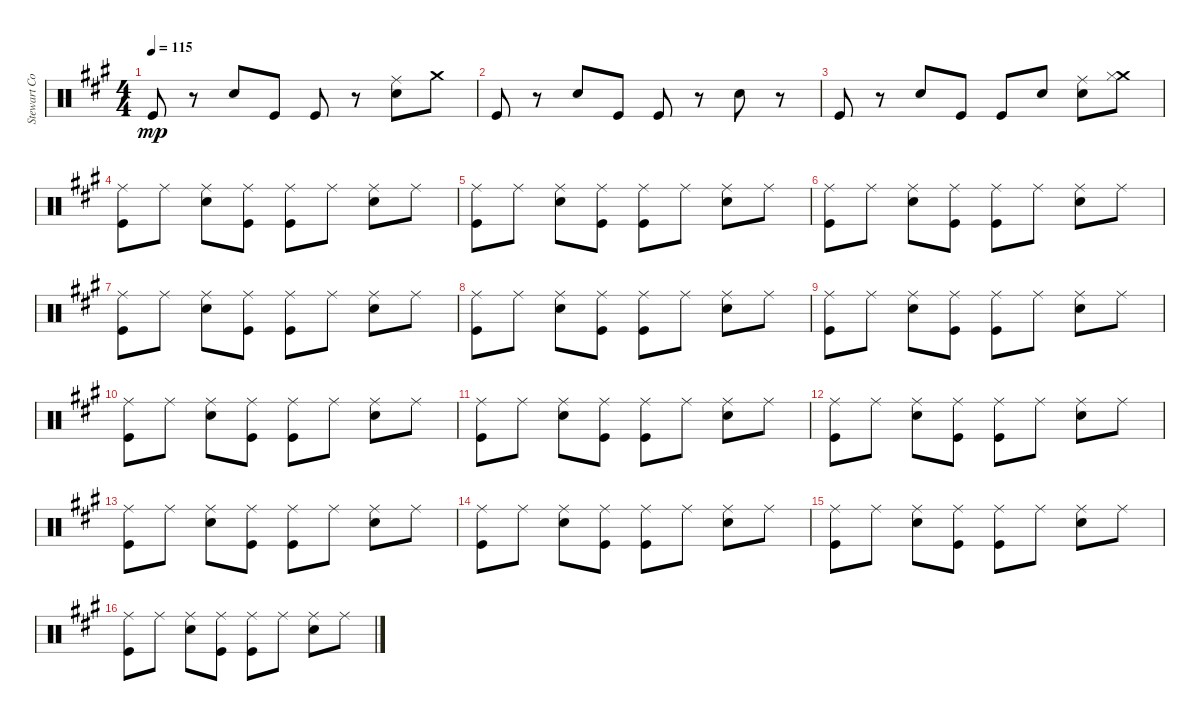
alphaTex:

\track ("Stewart Copeland" "Stewart Co") {instrument percussion}
\staff {score}
\articulation defaults
\ts (4 4)
\tempo 115
\clef neutral
\ks a "Kick (hit)".8{dy mp}
r.8 "Snare (hit) 2".8 "Kick (hit)".8 "Kick (hit)".8 r.8 ("Snare (hit) 2" "Ride (middle)").8 "Crash medium (hit)".8 |
"Kick (hit)".8 r.8 "Snare (hit) 2".8 "Kick (hit)".8 "Kick (hit)".8 r.8 "Snare (hit) 2".8 r.8 |
"Kick (hit)".8 r.8 "Snare (hit) 2".8 "Kick (hit)".8 "Kick (hit)".8 "Snare (hit) 2".8 ("Snare (hit) 2" "Ride (middle)").8 ("Crash medium (hit)" "Hi-Hat (closed)").8 |
("Kick (hit)" "Ride (middle)").8 "Ride (middle)".8 ("Snare (hit) 2" "Ride (middle)").8 ("Kick (hit)" "Ride (middle)").8 ("Kick (hit)" "Ride (middle)").8 "Ride (middle)".8 ("Snare (hit) 2" "Ride (middle)").8 "Ride (middle)".8 |
("Kick (hit)" "Ride (middle)").8 "Ride (middle)".8 ("Snare (hit) 2" "Ride (middle)").8 ("Kick (hit)" "Ride (middle)").8 ("Kick (hit)" "Ride (middle)").8 "Ride (middle)".8 ("Snare (hit) 2" "Ride (middle)").8 "Ride (middle)".8 |
("Kick (hit)" "Ride (middle)").8 "Ride (middle)".8 ("Snare (hit) 2" "Ride (middle)").8 ("Kick (hit)" "Ride (middle)").8 ("Kick (hit)" "Ride (middle)").8 "Ride (middle)".8 ("Snare (hit) 2" "Ride (middle)").8 "Ride (middle)".8 |
("Kick (hit)" "Ride (middle)").8 "Ride (middle)".8 ("Snare (hit) 2" "Ride (middle)").8 ("Kick (hit)" "Ride (middle)").8 ("Kick (hit)" "Ride (middle)").8 "Ride (middle)".8 ("Snare (hit) 2" "Ride (middle)").8 "Ride (middle)".8 |
("Kick (hit)" "Ride (middle)").8 "Ride (middle)".8 ("Snare (hit) 2" "Ride (middle)").8 ("Kick (hit)" "Ride (middle)").8 ("Kick (hit)" "Ride (middle)").8 "Ride (middle)".8 ("Snare (hit) 2" "Ride (middle)").8 "Ride (middle)".8 |
("Kick (hit)" "Ride (middle)").8 "Ride (middle)".8 ("Snare (hit) 2" "Ride (middle)").8 ("Kick (hit)" "Ride (middle)").8 ("Kick (hit)" "Ride (middle)").8 "Ride (middle)".8 ("Snare (hit) 2" "Ride (middle)").8 "Ride (middle)".8 |
("Kick (hit)" "Ride (middle)").8 "Ride (middle)".8 ("Snare (hit) 2" "Ride (middle)").8 ("Kick (hit)" "Ride (middle)").8 ("Kick (hit)" "Ride (middle)").8 "Ride (middle)".8 ("Snare (hit) 2" "Ride (middle)").8 "Ride (middle)".8 |
("Kick (hit)" "Ride (middle)").8 "Ride (middle)".8 ("Snare (hit) 2" "Ride (middle)").8 ("Kick (hit)" "Ride (middle)").8 ("Kick (hit)" "Ride (middle)").8 "Ride (middle)".8 ("Snare (hit) 2" "Ride (middle)").8 "Ride (middle)".8 |
("Kick (hit)" "Ride (middle)").8 "Ride (middle)".8 ("Snare (hit) 2" "Ride (middle)").8 ("Kick (hit)" "Ride (middle)").8 ("Kick (hit)" "Ride (middle)").8 "Ride (middle)".8 ("Snare (hit) 2" "Ride (middle)").8 "Ride (middle)".8 |
("Kick (hit)" "Ride (middle)").8 "Ride (middle)".8 ("Snare (hit) 2" "Ride (middle)").8 ("Kick (hit)" "Ride (middle)").8 ("Kick (hit)" "Ride (middle)").8 "Ride (middle)".8 ("Snare (hit) 2" "Ride (middle)").8 "Ride (middle)".8 |
("Kick (hit)" "Ride (middle)").8 "Ride (middle)".8 ("Snare (hit) 2" "Ride (middle)").8 ("Kick (hit)" "Ride (middle)").8 ("Kick (hit)" "Ride (middle)").8 "Ride (middle)".8 ("Snare (hit) 2" "Ride (middle)").8 "Ride (middle)".8 |
("Kick (hit)" "Ride (middle)").8 "Ride (middle)".8 ("Snare (hit) 2" "Ride (middle)").8 ("Kick (hit)" "Ride (middle)").8 ("Kick (hit)" "Ride (middle)").8 "Ride (middle)".8 ("Snare (hit) 2" "Ride (middle)").8 "Ride (middle)".8 |
("Kick (hit)" "Ride (middle)").8 "Ride (middle)".8 ("Snare (hit) 2" "Ride (middle)").8 ("Kick (hit)" "Ride (middle)").8 ("Kick (hit)" "Ride (middle)").8 "Ride (middle)".8 ("Snare (hit) 2" "Ride (middle)").8 "Ride (middle)".8
